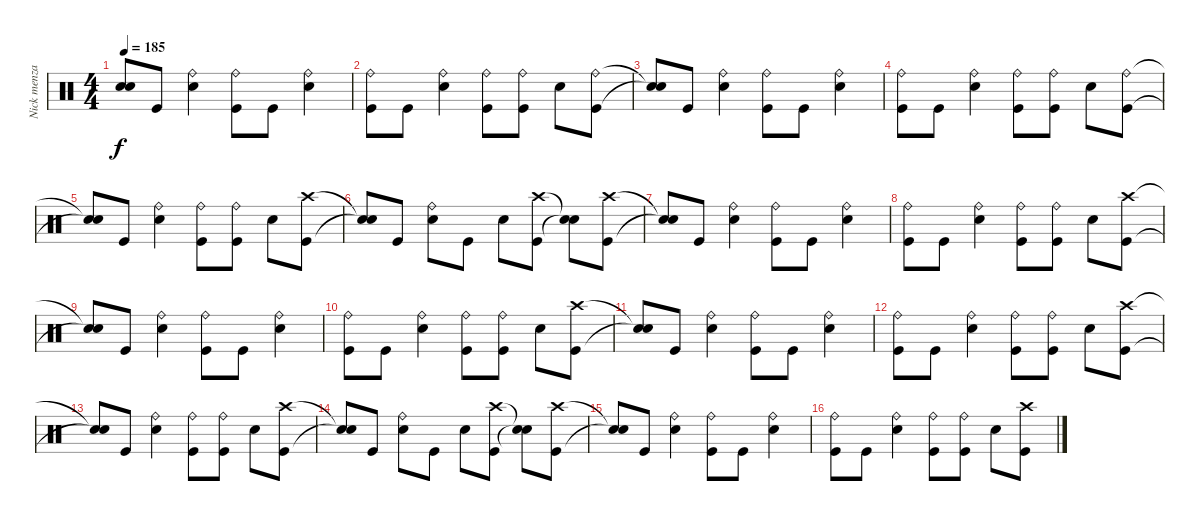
\track ("Nick menza/Jimmy de grasso" "Nick menza") {instrument percussion}
\staff {score}
\articulation defaults
\ts (4 4)
\tempo 185
\clef neutral
\ks c
("Snare (hit)"{t} "Snare (hit)"{t}).8{dy f} "Kick (hit)".8 ("Ride (bell)" "Snare (hit) 2").4 ("Kick (hit)" "Ride (bell)").8 "Kick (hit)".8 ("Ride (bell)" "Snare (hit) 2").4 |
("Kick (hit)" "Ride (bell)").8 "Kick (hit)".8 ("Ride (bell)" "Snare (hit) 2").4 ("Kick (hit)" "Ride (bell)").8 ("Kick (hit)" "Ride (bell)").8 "Snare (hit) 2".8 ("Kick (hit)" "Ride (bell)").8 |
("Snare (hit)"{t} "Snare (hit)"{t}).8 "Kick (hit)".8 ("Ride (bell)" "Snare (hit) 2").4 ("Kick (hit)" "Ride (bell)").8 "Kick (hit)".8 ("Ride (bell)" "Snare (hit) 2").4 |
("Kick (hit)" "Ride (bell)").8 "Kick (hit)".8 ("Ride (bell)" "Snare (hit) 2").4 ("Kick (hit)" "Ride (bell)").8 ("Kick (hit)" "Ride (bell)").8 "Snare (hit) 2".8 ("Kick (hit)" "Ride (bell)").8 |
("Snare (hit)"{t} "Snare (hit)"{t}).8 "Kick (hit)".8 ("Ride (bell)" "Snare (hit) 2").4 ("Kick (hit)" "Ride (bell)").8 ("Kick (hit)" "Ride (bell)").8 "Snare (hit) 2".8 ("Kick (hit)" "Crash high (hit)").8 |
("Snare (hit)"{t} "Snare (hit)"{t}).8 "Kick (hit)".8 ("Snare (hit) 2" "Ride (bell)").8 "Kick (hit)".8 "Snare (hit) 2".8 ("Kick (hit)" "Crash high (hit)").8 ("Snare (hit)"{t} "Snare (hit)"{t}).8 ("Kick (hit)" "Crash high (hit)").8 |
("Snare (hit)"{t} "Snare (hit)"{t}).8 "Kick (hit)".8 ("Ride (bell)" "Snare (hit) 2").4 ("Kick (hit)" "Ride (bell)").8 "Kick (hit)".8 ("Ride (bell)" "Snare (hit) 2").4 |
("Kick (hit)" "Ride (bell)").8 "Kick (hit)".8 ("Ride (bell)" "Snare (hit) 2").4 ("Kick (hit)" "Ride (bell)").8 ("Kick (hit)" "Ride (bell)").8 "Snare (hit) 2".8 ("Kick (hit)" "Crash high (hit)").8 |
("Snare (hit)"{t} "Snare (hit)"{t}).8 "Kick (hit)".8 ("Ride (bell)" "Snare (hit) 2").4 ("Kick (hit)" "Ride (bell)").8 "Kick (hit)".8 ("Ride (bell)" "Snare (hit) 2").4 |
("Kick (hit)" "Ride (bell)").8 "Kick (hit)".8 ("Ride (bell)" "Snare (hit) 2").4 ("Kick (hit)" "Ride (bell)").8 ("Kick (hit)" "Ride (bell)").8 "Snare (hit) 2".8 ("Kick (hit)" "Crash high (hit)").8 |
("Snare (hit)"{t} "Snare (hit)"{t}).8 "Kick (hit)".8 ("Ride (bell)" "Snare (hit) 2").4 ("Kick (hit)" "Ride (bell)").8 "Kick (hit)".8 ("Ride (bell)" "Snare (hit) 2").4 |
("Kick (hit)" "Ride (bell)").8 "Kick (hit)".8 ("Ride (bell)" "Snare (hit) 2").4 ("Kick (hit)" "Ride (bell)").8 ("Kick (hit)" "Ride (bell)").8 "Snare (hit) 2".8 ("Kick (hit)" "Crash high (hit)").8 |
("Snare (hit)"{t} "Snare (hit)"{t}).8 "Kick (hit)".8 ("Ride (bell)" "Snare (hit) 2").4 ("Kick (hit)" "Ride (bell)").8 ("Kick (hit)" "Ride (bell)").8 "Snare (hit) 2".8 ("Kick (hit)" "Crash high (hit)").8 |
("Snare (hit)"{t} "Snare (hit)"{t}).8 "Kick (hit)".8 ("Ride (bell)" "Snare (hit) 2").8 "Kick (hit)".8 "Snare (hit) 2".8 ("Kick (hit)" "Crash high (hit)").8 ("Snare (hit)"{t} "Snare (hit)"{t}).8 ("Kick (hit)" "Crash high (hit)").8 |
("Snare (hit)"{t} "Snare (hit)"{t}).8 "Kick (hit)".8 ("Ride (bell)" "Snare (hit) 2").4 ("Kick (hit)" "Ride (bell)").8 "Kick (hit)".8 ("Ride (bell)" "Snare (hit) 2").4 |
("Kick (hit)" "Ride (bell)").8 "Kick (hit)".8 ("Ride (bell)" "Snare (hit) 2").4 ("Kick (hit)" "Ride (bell)").8 ("Kick (hit)" "Ride (bell)").8 "Snare (hit) 2".8 ("Kick (hit)" "Crash high (hit)").8
